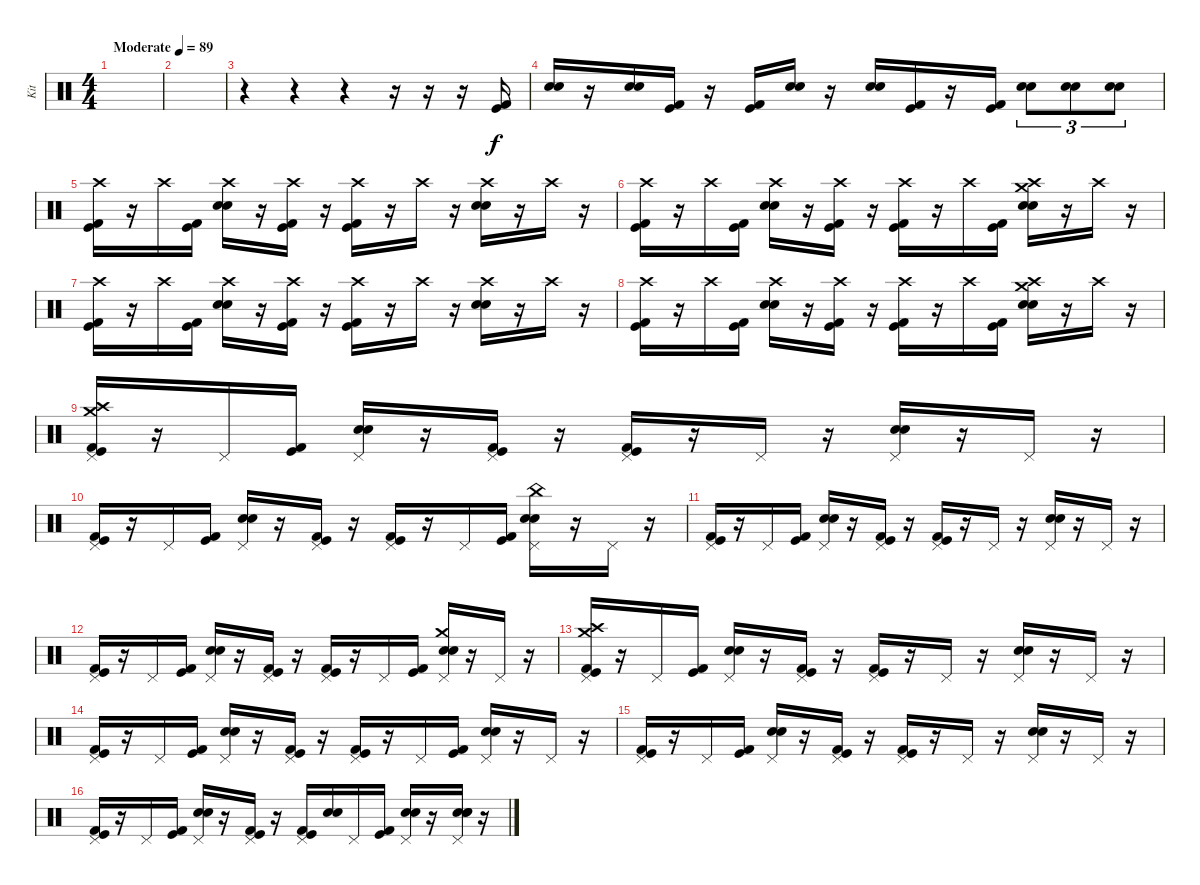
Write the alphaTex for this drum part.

\track ("Kit" "Kit") {instrument percussion}
\staff {score}
\articulation defaults
\ts (4 4)
\tempo (89 "Moderate")
\clef neutral
\ks c
|
|
r.4 r.4 r.4 r.16 r.16 r.16 ("Kick (hit) 2" "Kick (hit)").16 |
("Electric Snare (hit)" "Snare (hit) 2").16 r.16 ("Electric Snare (hit)" "Snare (hit) 2").16 ("Kick (hit) 2" "Kick (hit)").16 r.16 ("Kick (hit) 2" "Kick (hit)").16 ("Electric Snare (hit)" "Snare (hit) 2").16 r.16 ("Electric Snare (hit)" "Snare (hit) 2").16 ("Kick (hit) 2" "Kick (hit)").16 r.16 ("Kick (hit) 2" "Kick (hit)").16 ("Electric Snare (hit)" "Snare (hit) 2").8{tu (3 2)} ("Electric Snare (hit)" "Snare (hit) 2").8{tu (3 2)} ("Electric Snare (hit)" "Snare (hit) 2").8{tu (3 2)} |
("Crash high (hit)" "Kick (hit) 2" "Kick (hit)").16 r.16 "Crash high (hit)".16 ("Kick (hit) 2" "Kick (hit)").16 ("Crash high (hit)" "Electric Snare (hit)" "Snare (hit) 2").16 r.16 ("Crash high (hit)" "Kick (hit) 2" "Kick (hit)").16 r.16 ("Crash high (hit)" "Kick (hit) 2" "Kick (hit)").16 r.16 "Crash high (hit)".16 r.16 ("Crash high (hit)" "Electric Snare (hit)" "Snare (hit) 2").16 r.16 "Crash high (hit)".16 r.16 |
("Crash high (hit)" "Kick (hit) 2" "Kick (hit)").16 r.16 "Crash high (hit)".16 ("Kick (hit) 2" "Kick (hit)").16 ("Crash high (hit)" "Electric Snare (hit)" "Snare (hit) 2").16 r.16 ("Crash high (hit)" "Kick (hit) 2" "Kick (hit)").16 r.16 ("Crash high (hit)" "Kick (hit) 2" "Kick (hit)").16 r.16 "Crash high (hit)".16 ("Kick (hit) 2" "Kick (hit)").16 ("Crash high (hit)" "Crash medium (hit)" "Electric Snare (hit)" "Snare (hit) 2").16 r.16 "Crash high (hit)".16 r.16 |
("Crash high (hit)" "Kick (hit) 2" "Kick (hit)").16 r.16 "Crash high (hit)".16 ("Kick (hit) 2" "Kick (hit)").16 ("Crash high (hit)" "Electric Snare (hit)" "Snare (hit) 2").16 r.16 ("Crash high (hit)" "Kick (hit) 2" "Kick (hit)").16 r.16 ("Crash high (hit)" "Kick (hit) 2" "Kick (hit)").16 r.16 "Crash high (hit)".16 r.16 ("Crash high (hit)" "Electric Snare (hit)" "Snare (hit) 2").16 r.16 "Crash high (hit)".16 r.16 |
("Crash high (hit)" "Kick (hit) 2" "Kick (hit)").16 r.16 "Crash high (hit)".16 ("Kick (hit) 2" "Kick (hit)").16 ("Crash high (hit)" "Electric Snare (hit)" "Snare (hit) 2").16 r.16 ("Crash high (hit)" "Kick (hit) 2" "Kick (hit)").16 r.16 ("Crash high (hit)" "Kick (hit) 2" "Kick (hit)").16 r.16 "Crash high (hit)".16 ("Kick (hit) 2" "Kick (hit)").16 ("Crash high (hit)" "Crash medium (hit)" "Electric Snare (hit)" "Snare (hit) 2").16 r.16 "Crash high (hit)".16 r.16 |
("Pedal Hi-Hat (hit)" "Crash medium (hit)" "Crash high (hit)" "Kick (hit) 2" "Kick (hit)").16 r.16 "Pedal Hi-Hat (hit)".16 ("Kick (hit) 2" "Kick (hit)").16 ("Pedal Hi-Hat (hit)" "Electric Snare (hit)" "Snare (hit) 2").16 r.16 ("Pedal Hi-Hat (hit)" "Kick (hit) 2" "Kick (hit)").16 r.16 ("Pedal Hi-Hat (hit)" "Kick (hit) 2" "Kick (hit)").16 r.16 "Pedal Hi-Hat (hit)".16 r.16 ("Pedal Hi-Hat (hit)" "Electric Snare (hit)" "Snare (hit) 2").16 r.16 "Pedal Hi-Hat (hit)".16 r.16 |
("Pedal Hi-Hat (hit)" "Kick (hit) 2" "Kick (hit)").16 r.16 "Pedal Hi-Hat (hit)".16 ("Kick (hit) 2" "Kick (hit)").16 ("Pedal Hi-Hat (hit)" "Electric Snare (hit)" "Snare (hit) 2").16 r.16 ("Pedal Hi-Hat (hit)" "Kick (hit) 2" "Kick (hit)").16 r.16 ("Pedal Hi-Hat (hit)" "Kick (hit) 2" "Kick (hit)").16 r.16 "Pedal Hi-Hat (hit)".16 ("Kick (hit) 2" "Kick (hit)").16 ("Pedal Hi-Hat (hit)" "China (hit)" "Electric Snare (hit)" "Snare (hit) 2").16 r.16 "Pedal Hi-Hat (hit)".16 r.16 |
("Pedal Hi-Hat (hit)" "Kick (hit) 2" "Kick (hit)").16 r.16 "Pedal Hi-Hat (hit)".16 ("Kick (hit) 2" "Kick (hit)").16 ("Pedal Hi-Hat (hit)" "Electric Snare (hit)" "Snare (hit) 2").16 r.16 ("Pedal Hi-Hat (hit)" "Kick (hit) 2" "Kick (hit)").16 r.16 ("Pedal Hi-Hat (hit)" "Kick (hit) 2" "Kick (hit)").16 r.16 "Pedal Hi-Hat (hit)".16 r.16 ("Pedal Hi-Hat (hit)" "Electric Snare (hit)" "Snare (hit) 2").16 r.16 "Pedal Hi-Hat (hit)".16 r.16 |
("Pedal Hi-Hat (hit)" "Kick (hit) 2" "Kick (hit)").16 r.16 "Pedal Hi-Hat (hit)".16 ("Kick (hit) 2" "Kick (hit)").16 ("Pedal Hi-Hat (hit)" "Electric Snare (hit)" "Snare (hit) 2").16 r.16 ("Pedal Hi-Hat (hit)" "Kick (hit) 2" "Kick (hit)").16 r.16 ("Pedal Hi-Hat (hit)" "Kick (hit) 2" "Kick (hit)").16 r.16 "Pedal Hi-Hat (hit)".16 ("Kick (hit) 2" "Kick (hit)").16 ("Pedal Hi-Hat (hit)" "Crash medium (hit)" "Electric Snare (hit)" "Snare (hit) 2").16 r.16 "Pedal Hi-Hat (hit)".16 r.16 |
("Pedal Hi-Hat (hit)" "Crash medium (hit)" "Crash high (hit)" "Kick (hit) 2" "Kick (hit)").16 r.16 "Pedal Hi-Hat (hit)".16 ("Kick (hit) 2" "Kick (hit)").16 ("Pedal Hi-Hat (hit)" "Electric Snare (hit)" "Snare (hit) 2").16 r.16 ("Pedal Hi-Hat (hit)" "Kick (hit) 2" "Kick (hit)").16 r.16 ("Pedal Hi-Hat (hit)" "Kick (hit) 2" "Kick (hit)").16 r.16 "Pedal Hi-Hat (hit)".16 r.16 ("Pedal Hi-Hat (hit)" "Electric Snare (hit)" "Snare (hit) 2").16 r.16 "Pedal Hi-Hat (hit)".16 r.16 |
("Pedal Hi-Hat (hit)" "Kick (hit) 2" "Kick (hit)").16 r.16 "Pedal Hi-Hat (hit)".16 ("Kick (hit) 2" "Kick (hit)").16 ("Pedal Hi-Hat (hit)" "Electric Snare (hit)" "Snare (hit) 2").16 r.16 ("Pedal Hi-Hat (hit)" "Kick (hit) 2" "Kick (hit)").16 r.16 ("Pedal Hi-Hat (hit)" "Kick (hit) 2" "Kick (hit)").16 r.16 "Pedal Hi-Hat (hit)".16 ("Kick (hit) 2" "Kick (hit)").16 ("Pedal Hi-Hat (hit)" "Electric Snare (hit)" "Snare (hit) 2").16 r.16 "Pedal Hi-Hat (hit)".16 r.16 |
("Pedal Hi-Hat (hit)" "Kick (hit) 2" "Kick (hit)").16 r.16 "Pedal Hi-Hat (hit)".16 ("Kick (hit) 2" "Kick (hit)").16 ("Pedal Hi-Hat (hit)" "Electric Snare (hit)" "Snare (hit) 2").16 r.16 ("Pedal Hi-Hat (hit)" "Kick (hit) 2" "Kick (hit)").16 r.16 ("Pedal Hi-Hat (hit)" "Kick (hit) 2" "Kick (hit)").16 r.16 "Pedal Hi-Hat (hit)".16 r.16 ("Pedal Hi-Hat (hit)" "Electric Snare (hit)" "Snare (hit) 2").16 r.16 "Pedal Hi-Hat (hit)".16 r.16 |
("Pedal Hi-Hat (hit)" "Kick (hit) 2" "Kick (hit)").16 r.16 "Pedal Hi-Hat (hit)".16 ("Kick (hit) 2" "Kick (hit)").16 ("Pedal Hi-Hat (hit)" "Electric Snare (hit)" "Snare (hit) 2").16 r.16 ("Pedal Hi-Hat (hit)" "Kick (hit) 2" "Kick (hit)").16 r.16 ("Pedal Hi-Hat (hit)" "Kick (hit) 2" "Kick (hit)").16 ("Electric Snare (hit)" "Snare (hit) 2").16 "Pedal Hi-Hat (hit)".16 ("Kick (hit) 2" "Kick (hit)").16 ("Pedal Hi-Hat (hit)" "Electric Snare (hit)" "Snare (hit) 2").16 r.16 ("Pedal Hi-Hat (hit)" "Snare (hit) 2" "Electric Snare (hit)" "Snare (hit) 2").16 r.16
